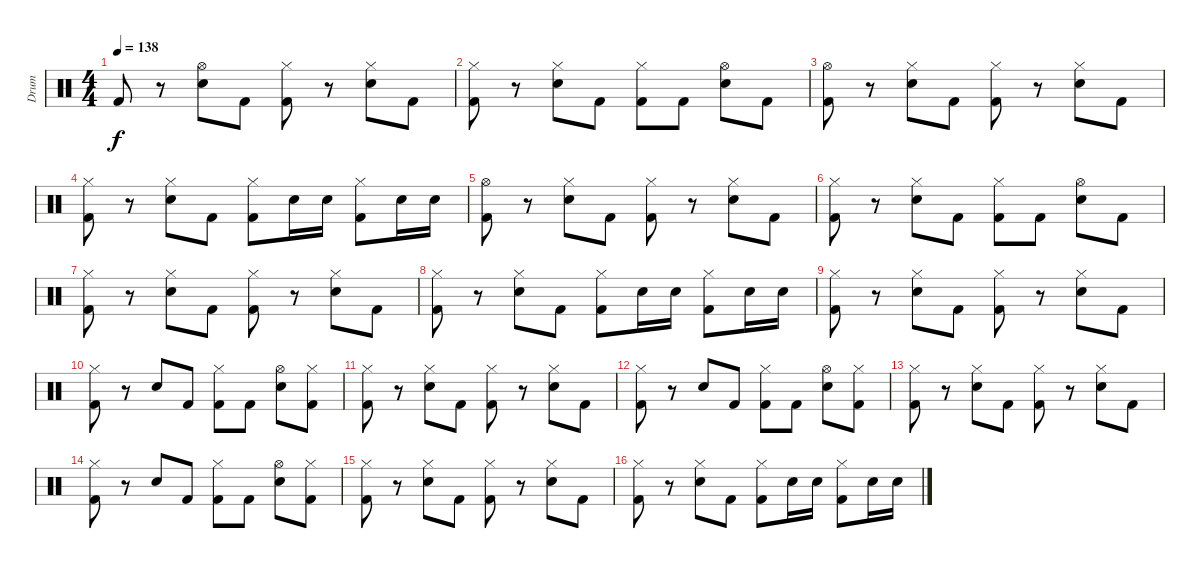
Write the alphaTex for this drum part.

\track ("Drum" "Drum") {instrument percussion}
\staff {score}
\articulation defaults
\ts (4 4)
\tempo 138
\clef neutral
\ks c "Kick (hit) 2".8{dy f}
r.8 ("Hi-Hat (open)" "Electric Snare (hit)").8 "Kick (hit) 2".8 ("Hi-Hat (closed)" "Kick (hit) 2").8 r.8 ("Hi-Hat (closed)" "Electric Snare (hit)").8 "Kick (hit) 2".8 |
("Hi-Hat (closed)" "Kick (hit) 2").8 r.8 ("Hi-Hat (closed)" "Electric Snare (hit)").8 "Kick (hit) 2".8 ("Hi-Hat (closed)" "Kick (hit) 2").8 "Kick (hit) 2".8 ("Hi-Hat (open)" "Electric Snare (hit)").8 "Kick (hit) 2".8 |
("Hi-Hat (open)" "Kick (hit) 2").8 r.8 ("Hi-Hat (closed)" "Electric Snare (hit)").8 "Kick (hit) 2".8 ("Hi-Hat (closed)" "Kick (hit) 2").8 r.8 ("Hi-Hat (closed)" "Electric Snare (hit)").8 "Kick (hit) 2".8 |
("Hi-Hat (closed)" "Kick (hit) 2").8 r.8 ("Hi-Hat (closed)" "Electric Snare (hit)").8 "Kick (hit) 2".8 ("Hi-Hat (closed)" "Kick (hit) 2").8 "Electric Snare (hit)".16 "Electric Snare (hit)".16 ("Hi-Hat (closed)" "Kick (hit) 2").8 "Electric Snare (hit)".16 "Electric Snare (hit)".16 |
("Hi-Hat (open)" "Kick (hit) 2").8 r.8 ("Hi-Hat (closed)" "Electric Snare (hit)").8 "Kick (hit) 2".8 ("Hi-Hat (closed)" "Kick (hit) 2").8 r.8 ("Hi-Hat (closed)" "Electric Snare (hit)").8 "Kick (hit) 2".8 |
("Hi-Hat (closed)" "Kick (hit) 2").8 r.8 ("Hi-Hat (closed)" "Electric Snare (hit)").8 "Kick (hit) 2".8 ("Hi-Hat (closed)" "Kick (hit) 2").8 "Kick (hit) 2".8 ("Hi-Hat (open)" "Electric Snare (hit)").8 "Kick (hit) 2".8 |
("Hi-Hat (closed)" "Kick (hit) 2").8 r.8 ("Hi-Hat (closed)" "Electric Snare (hit)").8 "Kick (hit) 2".8 ("Hi-Hat (closed)" "Kick (hit) 2").8 r.8 ("Hi-Hat (closed)" "Electric Snare (hit)").8 "Kick (hit) 2".8 |
("Hi-Hat (closed)" "Kick (hit) 2").8 r.8 ("Hi-Hat (closed)" "Electric Snare (hit)").8 "Kick (hit) 2".8 ("Hi-Hat (closed)" "Kick (hit) 2").8 "Electric Snare (hit)".16 "Electric Snare (hit)".16 ("Hi-Hat (closed)" "Kick (hit) 2").8 "Electric Snare (hit)".16 "Electric Snare (hit)".16 |
("Hi-Hat (closed)" "Kick (hit) 2").8 r.8 ("Hi-Hat (closed)" "Electric Snare (hit)").8 "Kick (hit) 2".8 ("Hi-Hat (closed)" "Kick (hit) 2").8 r.8 ("Hi-Hat (closed)" "Electric Snare (hit)").8 "Kick (hit) 2".8 |
("Hi-Hat (closed)" "Kick (hit) 2").8 r.8 "Electric Snare (hit)".8 "Kick (hit) 2".8 ("Hi-Hat (closed)" "Kick (hit) 2").8 "Kick (hit) 2".8 ("Hi-Hat (open)" "Electric Snare (hit)").8 ("Hi-Hat (closed)" "Kick (hit) 2").8 |
("Hi-Hat (closed)" "Kick (hit) 2").8 r.8 ("Hi-Hat (closed)" "Electric Snare (hit)").8 "Kick (hit) 2".8 ("Hi-Hat (closed)" "Kick (hit) 2").8 r.8 ("Hi-Hat (closed)" "Electric Snare (hit)").8 "Kick (hit) 2".8 |
("Hi-Hat (closed)" "Kick (hit) 2").8 r.8 "Electric Snare (hit)".8 "Kick (hit) 2".8 ("Hi-Hat (closed)" "Kick (hit) 2").8 "Kick (hit) 2".8 ("Hi-Hat (open)" "Electric Snare (hit)").8 ("Hi-Hat (closed)" "Kick (hit) 2").8 |
("Hi-Hat (closed)" "Kick (hit) 2").8 r.8 ("Hi-Hat (closed)" "Electric Snare (hit)").8 "Kick (hit) 2".8 ("Hi-Hat (closed)" "Kick (hit) 2").8 r.8 ("Hi-Hat (closed)" "Electric Snare (hit)").8 "Kick (hit) 2".8 |
("Hi-Hat (closed)" "Kick (hit) 2").8 r.8 "Electric Snare (hit)".8 "Kick (hit) 2".8 ("Hi-Hat (closed)" "Kick (hit) 2").8 "Kick (hit) 2".8 ("Hi-Hat (open)" "Electric Snare (hit)").8 ("Hi-Hat (closed)" "Kick (hit) 2").8 |
("Hi-Hat (closed)" "Kick (hit) 2").8 r.8 ("Hi-Hat (closed)" "Electric Snare (hit)").8 "Kick (hit) 2".8 ("Hi-Hat (closed)" "Kick (hit) 2").8 r.8 ("Hi-Hat (closed)" "Electric Snare (hit)").8 "Kick (hit) 2".8 |
("Hi-Hat (closed)" "Kick (hit) 2").8 r.8 ("Hi-Hat (closed)" "Electric Snare (hit)").8 "Kick (hit) 2".8 ("Hi-Hat (closed)" "Kick (hit) 2").8 "Electric Snare (hit)".16 "Electric Snare (hit)".16 ("Hi-Hat (closed)" "Kick (hit) 2").8 "Electric Snare (hit)".16 "Electric Snare (hit)".16
